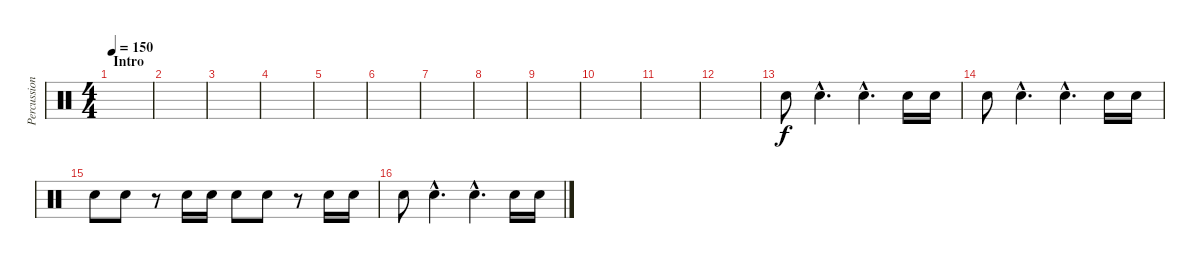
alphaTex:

\track ("Percussion" "Percussion") {instrument percussion}
\staff {score}
\articulation defaults
\ts (4 4)
\section ("" "Intro")
\tempo 150
\clef neutral
\ks c
|
|
|
|
|
|
|
|
|
|
|
|
"Snare (hit) 2".8 "Snare (hit) 2"{hac}.4{d} "Snare (hit) 2"{hac}.4{d} "Snare (hit) 2".16 "Snare (hit) 2".16 |
"Snare (hit) 2".8 "Snare (hit) 2"{hac}.4{d} "Snare (hit) 2"{hac}.4{d} "Snare (hit) 2".16 "Snare (hit) 2".16 |
"Snare (hit) 2".8 "Snare (hit) 2".8 r.8 "Snare (hit) 2".16 "Snare (hit) 2".16 "Snare (hit) 2".8 "Snare (hit) 2".8 r.8 "Snare (hit) 2".16 "Snare (hit) 2".16 |
"Snare (hit) 2".8 "Snare (hit) 2"{hac}.4{d} "Snare (hit) 2"{hac}.4{d} "Snare (hit) 2".16 "Snare (hit) 2".16
